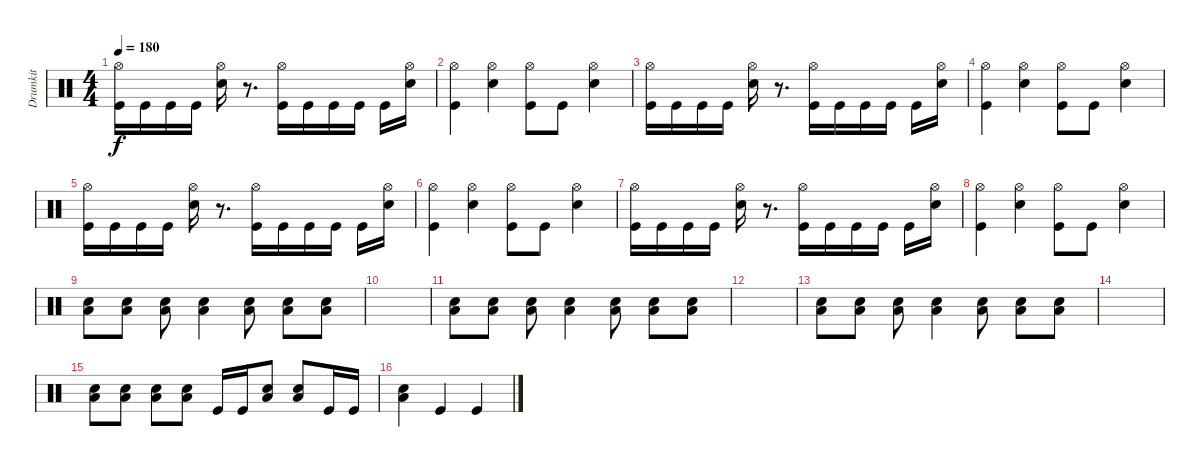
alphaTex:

\track ("Drumkit" "Drumkit") {instrument percussion}
\staff {score}
\articulation defaults
\ts (4 4)
\tempo 180
\clef neutral
\ks c
("Hi-Hat (open)" "Kick (hit)").16{dy f} "Kick (hit)".16 "Kick (hit)".16 "Kick (hit)".16 ("Hi-Hat (open)" "Snare (hit) 2").16 r.8{d} ("Hi-Hat (open)" "Kick (hit)").16 "Kick (hit)".16 "Kick (hit)".16 "Kick (hit)".16 "Kick (hit)".16 ("Hi-Hat (open)" "Snare (hit) 2").16 |
("Hi-Hat (open)" "Kick (hit)").4 ("Hi-Hat (open)" "Snare (hit) 2").4 ("Hi-Hat (open)" "Kick (hit)").8 "Kick (hit)".8 ("Hi-Hat (open)" "Snare (hit) 2").4 |
("Hi-Hat (open)" "Kick (hit)").16 "Kick (hit)".16 "Kick (hit)".16 "Kick (hit)".16 ("Hi-Hat (open)" "Snare (hit) 2").16 r.8{d} ("Hi-Hat (open)" "Kick (hit)").16 "Kick (hit)".16 "Kick (hit)".16 "Kick (hit)".16 "Kick (hit)".16 ("Hi-Hat (open)" "Snare (hit) 2").16 |
("Hi-Hat (open)" "Kick (hit)").4 ("Hi-Hat (open)" "Snare (hit) 2").4 ("Hi-Hat (open)" "Kick (hit)").8 "Kick (hit)".8 ("Hi-Hat (open)" "Snare (hit) 2").4 |
("Hi-Hat (open)" "Kick (hit)").16 "Kick (hit)".16 "Kick (hit)".16 "Kick (hit)".16 ("Hi-Hat (open)" "Snare (hit) 2").16 r.8{d} ("Hi-Hat (open)" "Kick (hit)").16 "Kick (hit)".16 "Kick (hit)".16 "Kick (hit)".16 "Kick (hit)".16 ("Hi-Hat (open)" "Snare (hit) 2").16 |
("Hi-Hat (open)" "Kick (hit)").4 ("Hi-Hat (open)" "Snare (hit) 2").4 ("Hi-Hat (open)" "Kick (hit)").8 "Kick (hit)".8 ("Hi-Hat (open)" "Snare (hit) 2").4 |
("Hi-Hat (open)" "Kick (hit)").16 "Kick (hit)".16 "Kick (hit)".16 "Kick (hit)".16 ("Hi-Hat (open)" "Snare (hit) 2").16 r.8{d} ("Hi-Hat (open)" "Kick (hit)").16 "Kick (hit)".16 "Kick (hit)".16 "Kick (hit)".16 "Kick (hit)".16 ("Hi-Hat (open)" "Snare (hit) 2").16 |
("Hi-Hat (open)" "Kick (hit)").4 ("Hi-Hat (open)" "Snare (hit) 2").4 ("Hi-Hat (open)" "Kick (hit)").8 "Kick (hit)".8 ("Hi-Hat (open)" "Snare (hit) 2").4 |
("Snare (hit) 2" "Low Floor Tom (hit)").8 ("Snare (hit) 2" "Low Floor Tom (hit)").8 ("Snare (hit) 2" "Low Floor Tom (hit)").8 ("Snare (hit) 2" "Low Floor Tom (hit)").4 ("Snare (hit) 2" "Low Floor Tom (hit)").8 ("Snare (hit) 2" "Low Floor Tom (hit)").8 ("Snare (hit) 2" "Low Floor Tom (hit)").8 |
|
("Snare (hit) 2" "Low Floor Tom (hit)").8 ("Snare (hit) 2" "Low Floor Tom (hit)").8 ("Snare (hit) 2" "Low Floor Tom (hit)").8 ("Snare (hit) 2" "Low Floor Tom (hit)").4 ("Snare (hit) 2" "Low Floor Tom (hit)").8 ("Snare (hit) 2" "Low Floor Tom (hit)").8 ("Snare (hit) 2" "Low Floor Tom (hit)").8 |
|
("Snare (hit) 2" "Low Floor Tom (hit)").8 ("Snare (hit) 2" "Low Floor Tom (hit)").8 ("Snare (hit) 2" "Low Floor Tom (hit)").8 ("Snare (hit) 2" "Low Floor Tom (hit)").4 ("Snare (hit) 2" "Low Floor Tom (hit)").8 ("Snare (hit) 2" "Low Floor Tom (hit)").8 ("Snare (hit) 2" "Low Floor Tom (hit)").8 |
|
("Snare (hit) 2" "Low Floor Tom (hit)").8 ("Snare (hit) 2" "Low Floor Tom (hit)").8 ("Snare (hit) 2" "Low Floor Tom (hit)").8 ("Snare (hit) 2" "Low Floor Tom (hit)").8 "Kick (hit)".16 "Kick (hit)".16 ("Snare (hit) 2" "Low Floor Tom (hit)").8 ("Snare (hit) 2" "Low Floor Tom (hit)").8 "Kick (hit)".16 "Kick (hit)".16 |
("Snare (hit) 2" "Low Floor Tom (hit)").4 "Kick (hit)".4 "Kick (hit)".4
